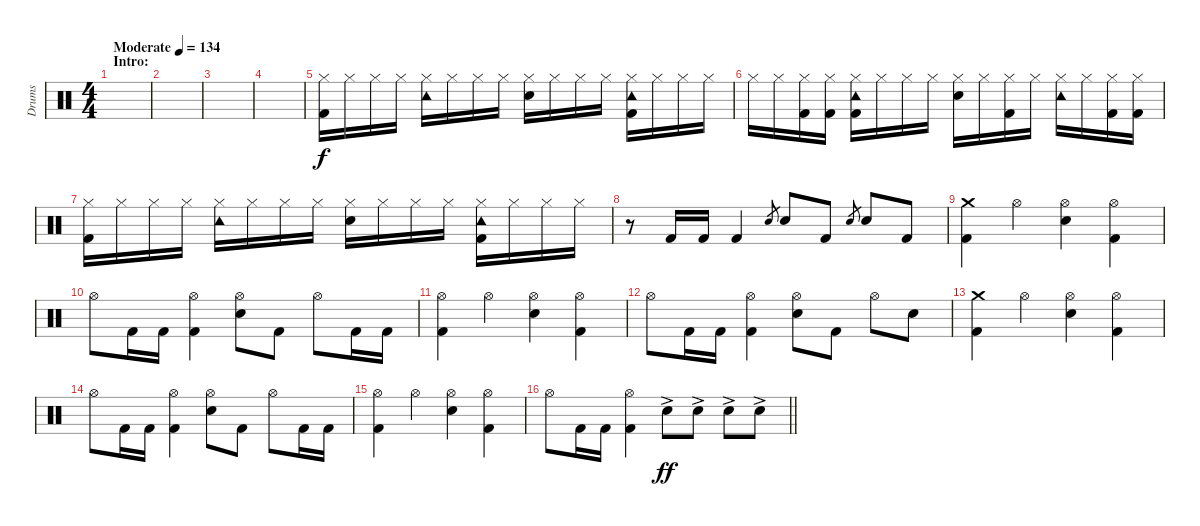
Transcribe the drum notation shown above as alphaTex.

\track ("Drums" "Drums") {instrument percussion}
\staff {score}
\articulation defaults
\ts (4 4)
\section ("" "Intro:")
\tempo (134 "Moderate")
\clef neutral
\ks c
|
|
|
|
("Hi-Hat (closed)" "Kick (hit) 2").16 "Hi-Hat (closed)".16 "Hi-Hat (closed)".16 "Hi-Hat (closed)".16 ("Tambourine (hit)" "Hi-Hat (closed)").16 "Hi-Hat (closed)".16 "Hi-Hat (closed)".16 "Hi-Hat (closed)".16 ("Hi-Hat (closed)" "Hand Clap (hit)").16 "Hi-Hat (closed)".16 "Hi-Hat (closed)".16 "Hi-Hat (closed)".16 ("Tambourine (hit)" "Hi-Hat (closed)" "Kick (hit) 2").16 "Hi-Hat (closed)".16 "Hi-Hat (closed)".16 "Hi-Hat (closed)".16 |
"Hi-Hat (closed)".16 "Hi-Hat (closed)".16 ("Hi-Hat (closed)" "Kick (hit) 2").16 ("Hi-Hat (closed)" "Kick (hit) 2").16 ("Tambourine (hit)" "Hi-Hat (closed)" "Kick (hit) 2").16 "Hi-Hat (closed)".16 "Hi-Hat (closed)".16 "Hi-Hat (closed)".16 ("Hi-Hat (closed)" "Hand Clap (hit)").16 "Hi-Hat (closed)".16 ("Hi-Hat (closed)" "Kick (hit) 2").16 "Hi-Hat (closed)".16 ("Tambourine (hit)" "Hi-Hat (closed)").16 "Hi-Hat (closed)".16 ("Hi-Hat (closed)" "Kick (hit) 2").16 ("Hi-Hat (closed)" "Kick (hit) 2").16 |
("Hi-Hat (closed)" "Kick (hit) 2").16 "Hi-Hat (closed)".16 "Hi-Hat (closed)".16 "Hi-Hat (closed)".16 ("Tambourine (hit)" "Hi-Hat (closed)").16 "Hi-Hat (closed)".16 "Hi-Hat (closed)".16 "Hi-Hat (closed)".16 ("Hi-Hat (closed)" "Hand Clap (hit)").16 "Hi-Hat (closed)".16 "Hi-Hat (closed)".16 "Hi-Hat (closed)".16 ("Tambourine (hit)" "Hi-Hat (closed)" "Kick (hit) 2").16 "Hi-Hat (closed)".16 "Hi-Hat (closed)".16 "Hi-Hat (closed)".16 |
r.8 "Kick (hit) 2".16 "Kick (hit) 2".16 "Kick (hit) 2".4 "Electric Snare (hit)".8{gr} "Electric Snare (hit)".8 "Kick (hit) 2".8 "Electric Snare (hit)".8{gr} "Electric Snare (hit)".8 "Kick (hit) 2".8 |
("Crash medium (hit)" "Kick (hit) 2").4 "Hi-Hat (open)".4 ("Hi-Hat (open)" "Electric Snare (hit)").4 ("Hi-Hat (open)" "Kick (hit) 2").4 |
"Hi-Hat (open)".8 "Kick (hit) 2".16 "Kick (hit) 2".16 ("Hi-Hat (open)" "Kick (hit) 2").4 ("Hi-Hat (open)" "Electric Snare (hit)").8 "Kick (hit) 2".8 "Hi-Hat (open)".8 "Kick (hit) 2".16 "Kick (hit) 2".16 |
("Hi-Hat (open)" "Kick (hit) 2").4 "Hi-Hat (open)".4 ("Hi-Hat (open)" "Electric Snare (hit)").4 ("Hi-Hat (open)" "Kick (hit) 2").4 |
"Hi-Hat (open)".8 "Kick (hit) 2".16 "Kick (hit) 2".16 ("Hi-Hat (open)" "Kick (hit) 2").4 ("Hi-Hat (open)" "Electric Snare (hit)").8 "Kick (hit) 2".8 "Hi-Hat (open)".8 "Electric Snare (hit)".8 |
("Crash medium (hit)" "Kick (hit) 2").4 "Hi-Hat (open)".4 ("Hi-Hat (open)" "Electric Snare (hit)").4 ("Hi-Hat (open)" "Kick (hit) 2").4 |
"Hi-Hat (open)".8 "Kick (hit) 2".16 "Kick (hit) 2".16 ("Hi-Hat (open)" "Kick (hit) 2").4 ("Hi-Hat (open)" "Electric Snare (hit)").8 "Kick (hit) 2".8 "Hi-Hat (open)".8 "Kick (hit) 2".16 "Kick (hit) 2".16 |
("Hi-Hat (open)" "Kick (hit) 2").4 "Hi-Hat (open)".4 ("Hi-Hat (open)" "Electric Snare (hit)").4 ("Hi-Hat (open)" "Kick (hit) 2").4 |
\barLineRight lightlight "Hi-Hat (open)".8 "Kick (hit) 2".16 "Kick (hit) 2".16
("Hi-Hat (open)" "Kick (hit) 2").4 "Electric Snare (hit)"{ac}.8{dy ff} "Electric Snare (hit)"{ac}.8 "Electric Snare (hit)"{ac}.8 "Electric Snare (hit)"{ac}.8
